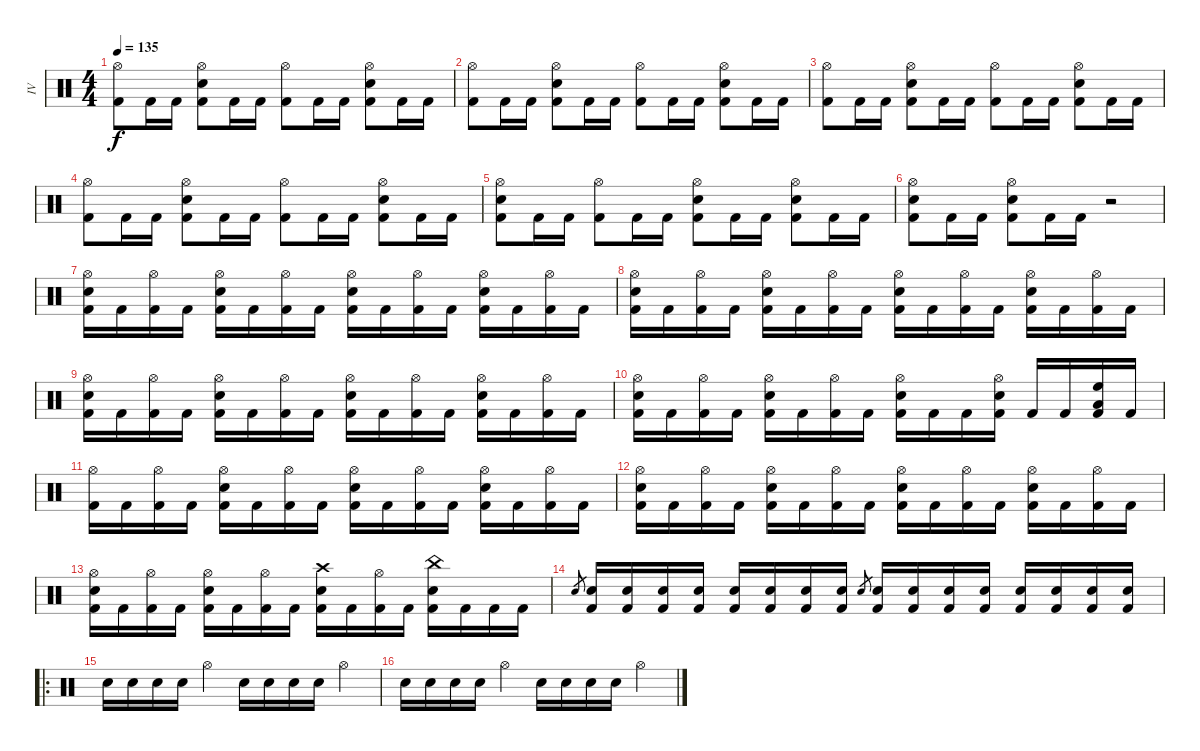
\track ("IV" "IV") {instrument percussion}
\staff {score}
\articulation defaults
\ts (4 4)
\tempo 135
\clef neutral
\ks c
("Hi-Hat (open)" "Kick (hit) 2").8{dy f} "Kick (hit) 2".16 "Kick (hit) 2".16 ("Hi-Hat (open)" "Snare (hit) 2" "Kick (hit) 2").8 "Kick (hit) 2".16 "Kick (hit) 2".16 ("Hi-Hat (open)" "Kick (hit) 2").8 "Kick (hit) 2".16 "Kick (hit) 2".16 ("Hi-Hat (open)" "Snare (hit) 2" "Kick (hit) 2").8 "Kick (hit) 2".16 "Kick (hit) 2".16 |
("Hi-Hat (open)" "Kick (hit) 2").8 "Kick (hit) 2".16 "Kick (hit) 2".16 ("Hi-Hat (open)" "Snare (hit) 2" "Kick (hit) 2").8 "Kick (hit) 2".16 "Kick (hit) 2".16 ("Hi-Hat (open)" "Kick (hit) 2").8 "Kick (hit) 2".16 "Kick (hit) 2".16 ("Hi-Hat (open)" "Snare (hit) 2" "Kick (hit) 2").8 "Kick (hit) 2".16 "Kick (hit) 2".16 |
("Hi-Hat (open)" "Kick (hit) 2").8 "Kick (hit) 2".16 "Kick (hit) 2".16 ("Hi-Hat (open)" "Snare (hit) 2" "Kick (hit) 2").8 "Kick (hit) 2".16 "Kick (hit) 2".16 ("Hi-Hat (open)" "Kick (hit) 2").8 "Kick (hit) 2".16 "Kick (hit) 2".16 ("Hi-Hat (open)" "Snare (hit) 2" "Kick (hit) 2").8 "Kick (hit) 2".16 "Kick (hit) 2".16 |
("Hi-Hat (open)" "Kick (hit) 2").8 "Kick (hit) 2".16 "Kick (hit) 2".16 ("Hi-Hat (open)" "Snare (hit) 2" "Kick (hit) 2").8 "Kick (hit) 2".16 "Kick (hit) 2".16 ("Hi-Hat (open)" "Kick (hit) 2").8 "Kick (hit) 2".16 "Kick (hit) 2".16 ("Hi-Hat (open)" "Snare (hit) 2" "Kick (hit) 2").8 "Kick (hit) 2".16 "Kick (hit) 2".16 |
("Hi-Hat (open)" "Snare (hit) 2" "Kick (hit) 2").8 "Kick (hit) 2".16 "Kick (hit) 2".16 ("Hi-Hat (open)" "Kick (hit) 2").8 "Kick (hit) 2".16 "Kick (hit) 2".16 ("Hi-Hat (open)" "Snare (hit) 2" "Kick (hit) 2").8 "Kick (hit) 2".16 "Kick (hit) 2".16 ("Hi-Hat (open)" "Snare (hit) 2" "Kick (hit) 2").8 "Kick (hit) 2".16 "Kick (hit) 2".16 |
("Hi-Hat (open)" "Snare (hit) 2" "Kick (hit) 2").8 "Kick (hit) 2".16 "Kick (hit) 2".16 ("Hi-Hat (open)" "Snare (hit) 2" "Kick (hit) 2").8 "Kick (hit) 2".16 "Kick (hit) 2".16 r.2 |
("Hi-Hat (open)" "Snare (hit) 2" "Kick (hit) 2").16 "Kick (hit) 2".16 ("Hi-Hat (open)" "Kick (hit) 2").16 "Kick (hit) 2".16 ("Hi-Hat (open)" "Snare (hit) 2" "Kick (hit) 2").16 "Kick (hit) 2".16 ("Hi-Hat (open)" "Kick (hit) 2").16 "Kick (hit) 2".16 ("Hi-Hat (open)" "Snare (hit) 2" "Kick (hit) 2").16 "Kick (hit) 2".16 ("Hi-Hat (open)" "Kick (hit) 2").16 "Kick (hit) 2".16 ("Hi-Hat (open)" "Snare (hit) 2" "Kick (hit) 2").16 "Kick (hit) 2".16 ("Hi-Hat (open)" "Kick (hit) 2").16 "Kick (hit) 2".16 |
("Hi-Hat (open)" "Snare (hit) 2" "Kick (hit) 2").16 "Kick (hit) 2".16 ("Hi-Hat (open)" "Kick (hit) 2").16 "Kick (hit) 2".16 ("Hi-Hat (open)" "Snare (hit) 2" "Kick (hit) 2").16 "Kick (hit) 2".16 ("Hi-Hat (open)" "Kick (hit) 2").16 "Kick (hit) 2".16 ("Hi-Hat (open)" "Snare (hit) 2" "Kick (hit) 2").16 "Kick (hit) 2".16 ("Hi-Hat (open)" "Kick (hit) 2").16 "Kick (hit) 2".16 ("Hi-Hat (open)" "Snare (hit) 2" "Kick (hit) 2").16 "Kick (hit) 2".16 ("Hi-Hat (open)" "Kick (hit) 2").16 "Kick (hit) 2".16 |
("Hi-Hat (open)" "Snare (hit) 2" "Kick (hit) 2").16 "Kick (hit) 2".16 ("Hi-Hat (open)" "Kick (hit) 2").16 "Kick (hit) 2".16 ("Hi-Hat (open)" "Snare (hit) 2" "Kick (hit) 2").16 "Kick (hit) 2".16 ("Hi-Hat (open)" "Kick (hit) 2").16 "Kick (hit) 2".16 ("Hi-Hat (open)" "Snare (hit) 2" "Kick (hit) 2").16 "Kick (hit) 2".16 ("Hi-Hat (open)" "Kick (hit) 2").16 "Kick (hit) 2".16 ("Hi-Hat (open)" "Snare (hit) 2" "Kick (hit) 2").16 "Kick (hit) 2".16 ("Hi-Hat (open)" "Kick (hit) 2").16 "Kick (hit) 2".16 |
("Hi-Hat (open)" "Snare (hit) 2" "Kick (hit) 2").16 "Kick (hit) 2".16 ("Hi-Hat (open)" "Kick (hit) 2").16 "Kick (hit) 2".16 ("Hi-Hat (open)" "Snare (hit) 2" "Kick (hit) 2").16 "Kick (hit) 2".16 ("Hi-Hat (open)" "Kick (hit) 2").16 "Kick (hit) 2".16 ("Hi-Hat (open)" "Snare (hit) 2" "Kick (hit) 2").16 "Kick (hit) 2".16 "Kick (hit) 2".16 ("Hi-Hat (open)" "Snare (hit) 2" "Kick (hit) 2").16 "Kick (hit) 2".16 "Kick (hit) 2".16 ("High Floor Tom (hit)" "Low Tom (hit)" "Kick (hit) 2").16 "Kick (hit) 2".16 |
("Hi-Hat (open)" "Kick (hit) 2").16 "Kick (hit) 2".16 ("Hi-Hat (open)" "Kick (hit) 2").16 "Kick (hit) 2".16 ("Hi-Hat (open)" "Snare (hit) 2" "Kick (hit) 2").16 "Kick (hit) 2".16 ("Hi-Hat (open)" "Kick (hit) 2").16 "Kick (hit) 2".16 ("Hi-Hat (open)" "Snare (hit) 2" "Kick (hit) 2").16 "Kick (hit) 2".16 ("Hi-Hat (open)" "Kick (hit) 2").16 "Kick (hit) 2".16 ("Hi-Hat (open)" "Snare (hit) 2" "Kick (hit) 2").16 "Kick (hit) 2".16 ("Hi-Hat (open)" "Kick (hit) 2").16 "Kick (hit) 2".16 |
("Hi-Hat (open)" "Snare (hit) 2" "Kick (hit) 2").16 "Kick (hit) 2".16 ("Hi-Hat (open)" "Kick (hit) 2").16 "Kick (hit) 2".16 ("Hi-Hat (open)" "Snare (hit) 2" "Kick (hit) 2").16 "Kick (hit) 2".16 ("Hi-Hat (open)" "Kick (hit) 2").16 "Kick (hit) 2".16 ("Hi-Hat (open)" "Snare (hit) 2" "Kick (hit) 2").16 "Kick (hit) 2".16 ("Hi-Hat (open)" "Kick (hit) 2").16 "Kick (hit) 2".16 ("Hi-Hat (open)" "Snare (hit) 2" "Kick (hit) 2").16 "Kick (hit) 2".16 ("Hi-Hat (open)" "Kick (hit) 2").16 "Kick (hit) 2".16 |
("Hi-Hat (open)" "Snare (hit) 2" "Kick (hit) 2").16 "Kick (hit) 2".16 ("Hi-Hat (open)" "Kick (hit) 2").16 "Kick (hit) 2".16 ("Hi-Hat (open)" "Snare (hit) 2" "Kick (hit) 2").16 "Kick (hit) 2".16 ("Hi-Hat (open)" "Kick (hit) 2").16 "Kick (hit) 2".16 ("Crash high (hit)" "Snare (hit) 2" "Kick (hit) 2").16 "Kick (hit) 2".16 ("Hi-Hat (open)" "Kick (hit) 2").16 "Kick (hit) 2".16 ("China (hit)" "Snare (hit) 2" "Kick (hit) 2").16 "Kick (hit) 2".16 "Kick (hit) 2".16 "Kick (hit) 2".16 |
"Snare (hit) 2".8{gr} ("Snare (hit) 2" "Kick (hit) 2").16 ("Snare (hit) 2" "Kick (hit) 2").16 ("Snare (hit) 2" "Kick (hit) 2").16 ("Snare (hit) 2" "Kick (hit) 2").16 ("Snare (hit) 2" "Kick (hit) 2").16 ("Snare (hit) 2" "Kick (hit) 2").16 ("Snare (hit) 2" "Kick (hit) 2").16 ("Snare (hit) 2" "Kick (hit) 2").16 "Snare (hit) 2".8{gr} ("Snare (hit) 2" "Kick (hit) 2").16 ("Snare (hit) 2" "Kick (hit) 2").16 ("Snare (hit) 2" "Kick (hit) 2").16 ("Snare (hit) 2" "Kick (hit) 2").16 ("Snare (hit) 2" "Kick (hit) 2").16 ("Snare (hit) 2" "Kick (hit) 2").16 ("Snare (hit) 2" "Kick (hit) 2").16 ("Snare (hit) 2" "Kick (hit) 2").16 |
\ro "Snare (hit) 2".16 "Snare (hit) 2".16 "Snare (hit) 2".16 "Snare (hit) 2".16 "Hi-Hat (open)".4 "Snare (hit) 2".16 "Snare (hit) 2".16 "Snare (hit) 2".16 "Snare (hit) 2".16 "Hi-Hat (open)".4
|
"Snare (hit) 2".16 "Snare (hit) 2".16 "Snare (hit) 2".16 "Snare (hit) 2".16 "Hi-Hat (open)".4 "Snare (hit) 2".16 "Snare (hit) 2".16 "Snare (hit) 2".16 "Snare (hit) 2".16 "Hi-Hat (open)".4
